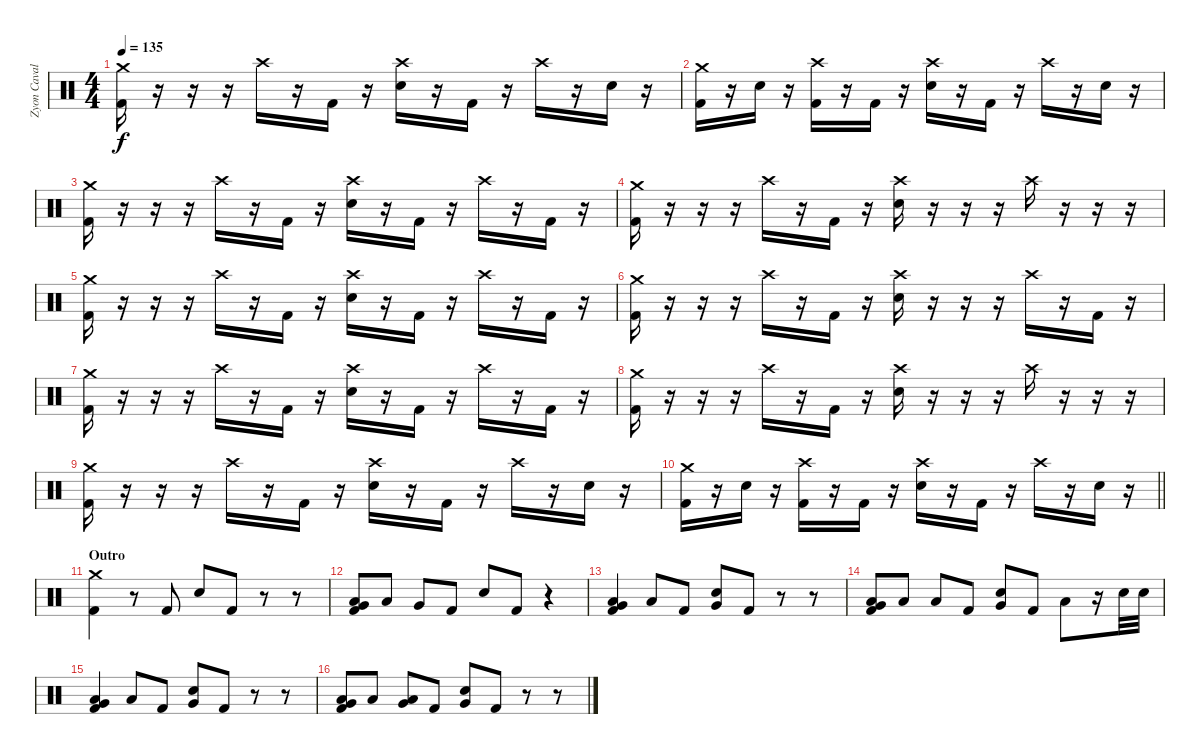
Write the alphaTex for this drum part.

\track ("Zyon Cavalera" "Zyon Caval") {instrument percussion}
\staff {score}
\articulation defaults
\ts (4 4)
\tempo 135
\clef neutral
\ks c
("Crash medium (hit)" "Kick (hit) 2").16{dy f} r.16 r.16 r.16 "Crash high (hit)".16 r.16 "Kick (hit) 2".16 r.16 ("Crash high (hit)" "Snare (hit) 2").16 r.16 "Kick (hit) 2".16 r.16 "Crash high (hit)".16 r.16 "Snare (hit) 2".16 r.16 |
("Crash medium (hit)" "Kick (hit) 2").16 r.16 "Snare (hit) 2".16 r.16 ("Crash high (hit)" "Kick (hit) 2").16 r.16 "Kick (hit) 2".16 r.16 ("Crash high (hit)" "Snare (hit) 2").16 r.16 "Kick (hit) 2".16 r.16 "Crash high (hit)".16 r.16 "Snare (hit) 2".16 r.16 |
("Crash medium (hit)" "Kick (hit) 2").16 r.16 r.16 r.16 "Crash high (hit)".16 r.16 "Kick (hit) 2".16 r.16 ("Crash high (hit)" "Snare (hit) 2").16 r.16 "Kick (hit) 2".16 r.16 "Crash high (hit)".16 r.16 "Kick (hit) 2".16 r.16 |
("Crash medium (hit)" "Kick (hit) 2").16 r.16 r.16 r.16 "Crash high (hit)".16 r.16 "Kick (hit) 2".16 r.16 ("Crash high (hit)" "Snare (hit) 2").16 r.16 r.16 r.16 "Crash high (hit)".16 r.16 r.16 r.16 |
("Crash medium (hit)" "Kick (hit) 2").16 r.16 r.16 r.16 "Crash high (hit)".16 r.16 "Kick (hit) 2".16 r.16 ("Crash high (hit)" "Snare (hit) 2").16 r.16 "Kick (hit) 2".16 r.16 "Crash high (hit)".16 r.16 "Kick (hit) 2".16 r.16 |
("Crash medium (hit)" "Kick (hit) 2").16 r.16 r.16 r.16 "Crash high (hit)".16 r.16 "Kick (hit) 2".16 r.16 ("Crash high (hit)" "Snare (hit) 2").16 r.16 r.16 r.16 "Crash high (hit)".16 r.16 "Kick (hit) 2".16 r.16 |
("Crash medium (hit)" "Kick (hit) 2").16 r.16 r.16 r.16 "Crash high (hit)".16 r.16 "Kick (hit) 2".16 r.16 ("Crash high (hit)" "Snare (hit) 2").16 r.16 "Kick (hit) 2".16 r.16 "Crash high (hit)".16 r.16 "Kick (hit) 2".16 r.16 |
("Crash medium (hit)" "Kick (hit) 2").16 r.16 r.16 r.16 "Crash high (hit)".16 r.16 "Kick (hit) 2".16 r.16 ("Crash high (hit)" "Snare (hit) 2").16 r.16 r.16 r.16 "Crash high (hit)".16 r.16 r.16 r.16 |
("Crash medium (hit)" "Kick (hit) 2").16 r.16 r.16 r.16 "Crash high (hit)".16 r.16 "Kick (hit) 2".16 r.16 ("Crash high (hit)" "Snare (hit) 2").16 r.16 "Kick (hit) 2".16 r.16 "Crash high (hit)".16 r.16 "Snare (hit) 2".16 r.16 |
\barLineRight lightlight
("Crash medium (hit)" "Kick (hit) 2").16 r.16 "Snare (hit) 2".16 r.16 ("Crash high (hit)" "Kick (hit) 2").16 r.16 "Kick (hit) 2".16 r.16 ("Crash high (hit)" "Snare (hit) 2").16 r.16 "Kick (hit) 2".16 r.16 "Crash high (hit)".16 r.16 "Snare (hit) 2".16 r.16 |
\section ("" "Outro")
("Crash medium (hit)" "Kick (hit) 2").4 r.8 "Kick (hit) 2".8 "Snare (hit) 2".8 "Kick (hit) 2".8 r.8 r.8 |
("Very Low Tom (hit)" "Low Floor Tom (hit)" "Kick (hit) 2").8 "Low Floor Tom (hit)".8 "Very Low Tom (hit)".8 "Kick (hit) 2".8 "Snare (hit) 2".8 "Kick (hit) 2".8 r.4 |
("Very Low Tom (hit)" "Low Floor Tom (hit)" "Kick (hit) 2").4 "Low Floor Tom (hit)".8 "Kick (hit) 2".8 ("Very Low Tom (hit)" "Snare (hit) 2").8 "Kick (hit) 2".8 r.8 r.8 |
("Very Low Tom (hit)" "Low Floor Tom (hit)" "Kick (hit) 2").8 "Low Floor Tom (hit)".8 "Low Tom (hit)".8 "Kick (hit) 2".8 ("Very Low Tom (hit)" "Snare (hit) 2").8 "Kick (hit) 2".8 "Low Floor Tom (hit)".8 r.16 "Snare (hit) 2".32 "Snare (hit) 2".32 |
("Very Low Tom (hit)" "Low Floor Tom (hit)" "Kick (hit) 2").4 "Low Floor Tom (hit)".8 "Kick (hit) 2".8 ("Very Low Tom (hit)" "Snare (hit) 2").8 "Kick (hit) 2".8 r.8 r.8 |
("Very Low Tom (hit)" "Low Floor Tom (hit)" "Kick (hit) 2").8 "Low Floor Tom (hit)".8 ("Very Low Tom (hit)" "Low Floor Tom (hit)").8 "Kick (hit) 2".8 ("Very Low Tom (hit)" "Snare (hit) 2").8 "Kick (hit) 2".8 r.8 r.8
